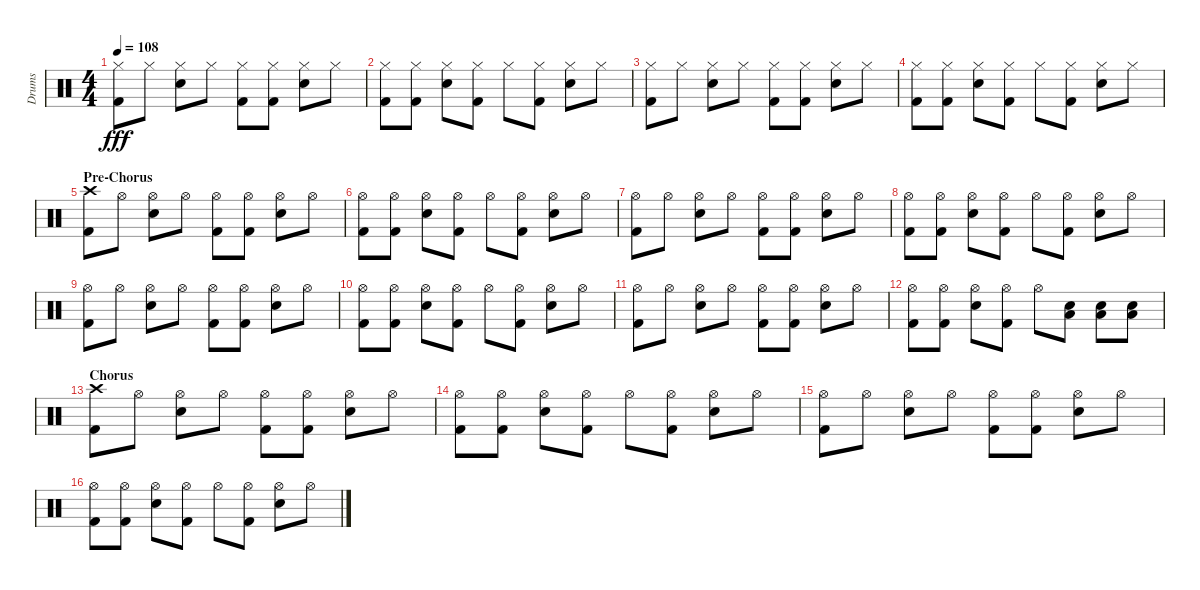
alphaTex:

\track ("Drums" "Drums") {instrument percussion}
\staff {score}
\articulation defaults
\ts (4 4)
\tempo 108
\clef neutral
\ks c
("Hi-Hat (closed)" "Kick (hit) 2").8{dy fff} "Hi-Hat (closed)".8 ("Hi-Hat (closed)" "Snare (hit) 2").8 "Hi-Hat (closed)".8 ("Hi-Hat (closed)" "Kick (hit) 2").8 ("Hi-Hat (closed)" "Kick (hit) 2").8 ("Hi-Hat (closed)" "Snare (hit) 2").8 "Hi-Hat (closed)".8 |
("Hi-Hat (closed)" "Kick (hit) 2").8 ("Hi-Hat (closed)" "Kick (hit) 2").8 ("Hi-Hat (closed)" "Snare (hit) 2").8 ("Hi-Hat (closed)" "Kick (hit) 2").8 "Hi-Hat (closed)".8 ("Hi-Hat (closed)" "Kick (hit) 2").8 ("Hi-Hat (closed)" "Snare (hit) 2").8 "Hi-Hat (closed)".8 |
("Hi-Hat (closed)" "Kick (hit) 2").8 "Hi-Hat (closed)".8 ("Hi-Hat (closed)" "Snare (hit) 2").8 "Hi-Hat (closed)".8 ("Hi-Hat (closed)" "Kick (hit) 2").8 ("Hi-Hat (closed)" "Kick (hit) 2").8 ("Hi-Hat (closed)" "Snare (hit) 2").8 "Hi-Hat (closed)".8 |
("Hi-Hat (closed)" "Kick (hit) 2").8 ("Hi-Hat (closed)" "Kick (hit) 2").8 ("Hi-Hat (closed)" "Snare (hit) 2").8 ("Hi-Hat (closed)" "Kick (hit) 2").8 "Hi-Hat (closed)".8 ("Hi-Hat (closed)" "Kick (hit) 2").8 ("Hi-Hat (closed)" "Snare (hit) 2").8 "Hi-Hat (closed)".8 |
\section ("" "Pre-Chorus")
("Crash high (hit)" "Kick (hit) 2").8 "Hi-Hat (open)".8 ("Hi-Hat (open)" "Snare (hit) 2").8 "Hi-Hat (open)".8 ("Hi-Hat (open)" "Kick (hit) 2").8 ("Hi-Hat (open)" "Kick (hit) 2").8 ("Hi-Hat (open)" "Snare (hit) 2").8 "Hi-Hat (open)".8 |
("Hi-Hat (open)" "Kick (hit) 2").8 ("Hi-Hat (open)" "Kick (hit) 2").8 ("Hi-Hat (open)" "Snare (hit) 2").8 ("Hi-Hat (open)" "Kick (hit) 2").8 "Hi-Hat (open)".8 ("Hi-Hat (open)" "Kick (hit) 2").8 ("Hi-Hat (open)" "Snare (hit) 2").8 "Hi-Hat (open)".8 |
("Hi-Hat (open)" "Kick (hit) 2").8 "Hi-Hat (open)".8 ("Hi-Hat (open)" "Snare (hit) 2").8 "Hi-Hat (open)".8 ("Hi-Hat (open)" "Kick (hit) 2").8 ("Hi-Hat (open)" "Kick (hit) 2").8 ("Hi-Hat (open)" "Snare (hit) 2").8 "Hi-Hat (open)".8 |
("Hi-Hat (open)" "Kick (hit) 2").8 ("Hi-Hat (open)" "Kick (hit) 2").8 ("Hi-Hat (open)" "Snare (hit) 2").8 ("Hi-Hat (open)" "Kick (hit) 2").8 "Hi-Hat (open)".8 ("Hi-Hat (open)" "Kick (hit) 2").8 ("Hi-Hat (open)" "Snare (hit) 2").8 "Hi-Hat (open)".8 |
("Hi-Hat (open)" "Kick (hit) 2").8 "Hi-Hat (open)".8 ("Hi-Hat (open)" "Snare (hit) 2").8 "Hi-Hat (open)".8 ("Hi-Hat (open)" "Kick (hit) 2").8 ("Hi-Hat (open)" "Kick (hit) 2").8 ("Hi-Hat (open)" "Snare (hit) 2").8 "Hi-Hat (open)".8 |
("Hi-Hat (open)" "Kick (hit) 2").8 ("Hi-Hat (open)" "Kick (hit) 2").8 ("Hi-Hat (open)" "Snare (hit) 2").8 ("Hi-Hat (open)" "Kick (hit) 2").8 "Hi-Hat (open)".8 ("Hi-Hat (open)" "Kick (hit) 2").8 ("Hi-Hat (open)" "Snare (hit) 2").8 "Hi-Hat (open)".8 |
("Hi-Hat (open)" "Kick (hit) 2").8 "Hi-Hat (open)".8 ("Hi-Hat (open)" "Snare (hit) 2").8 "Hi-Hat (open)".8 ("Hi-Hat (open)" "Kick (hit) 2").8 ("Hi-Hat (open)" "Kick (hit) 2").8 ("Hi-Hat (open)" "Snare (hit) 2").8 "Hi-Hat (open)".8 |
("Hi-Hat (open)" "Kick (hit) 2").8 ("Hi-Hat (open)" "Kick (hit) 2").8 ("Hi-Hat (open)" "Snare (hit) 2").8 ("Hi-Hat (open)" "Kick (hit) 2").8 "Hi-Hat (open)".8 ("Low Floor Tom (hit)" "Snare (hit) 2").8 ("Low Floor Tom (hit)" "Snare (hit) 2").8 ("Low Floor Tom (hit)" "Snare (hit) 2").8 |
\section ("" "Chorus")
("Crash high (hit)" "Kick (hit) 2").8 "Hi-Hat (open)".8 ("Hi-Hat (open)" "Snare (hit) 2").8 "Hi-Hat (open)".8 ("Hi-Hat (open)" "Kick (hit) 2").8 ("Hi-Hat (open)" "Kick (hit) 2").8 ("Hi-Hat (open)" "Snare (hit) 2").8 "Hi-Hat (open)".8 |
("Hi-Hat (open)" "Kick (hit) 2").8 ("Hi-Hat (open)" "Kick (hit) 2").8 ("Hi-Hat (open)" "Snare (hit) 2").8 ("Hi-Hat (open)" "Kick (hit) 2").8 "Hi-Hat (open)".8 ("Hi-Hat (open)" "Kick (hit) 2").8 ("Hi-Hat (open)" "Snare (hit) 2").8 "Hi-Hat (open)".8 |
("Hi-Hat (open)" "Kick (hit) 2").8 "Hi-Hat (open)".8 ("Hi-Hat (open)" "Snare (hit) 2").8 "Hi-Hat (open)".8 ("Hi-Hat (open)" "Kick (hit) 2").8 ("Hi-Hat (open)" "Kick (hit) 2").8 ("Hi-Hat (open)" "Snare (hit) 2").8 "Hi-Hat (open)".8 |
("Hi-Hat (open)" "Kick (hit) 2").8 ("Hi-Hat (open)" "Kick (hit) 2").8 ("Hi-Hat (open)" "Snare (hit) 2").8 ("Hi-Hat (open)" "Kick (hit) 2").8 "Hi-Hat (open)".8 ("Hi-Hat (open)" "Kick (hit) 2").8 ("Hi-Hat (open)" "Snare (hit) 2").8 "Hi-Hat (open)".8
